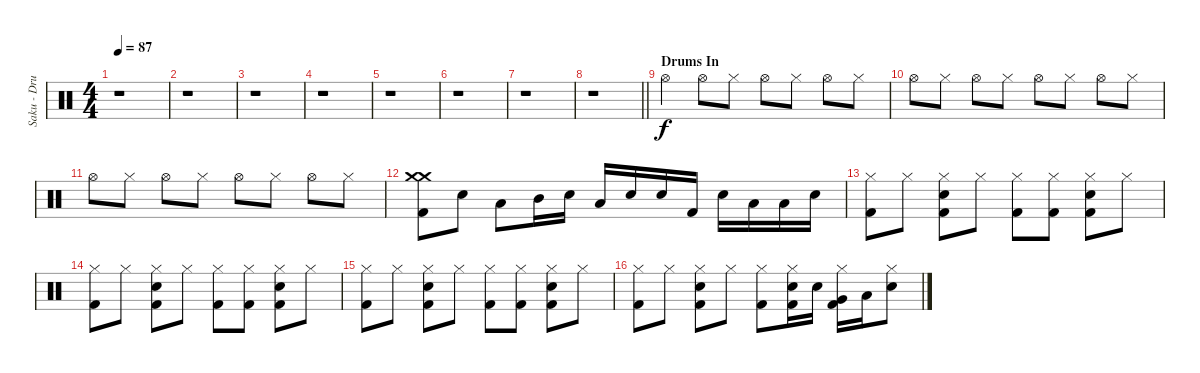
\track ("Saku - Drums" "Saku - Dru") {instrument percussion}
\staff {score}
\articulation defaults
\ts (4 4)
\tempo 87
\clef neutral
\ks c
r.1{dy f} |
r.1 |
r.1 |
r.1 |
r.1 |
r.1 |
r.1 |
\barLineRight lightlight
r.1 |
\section ("" "Drums In")
"Hi-Hat (open)".4 "Hi-Hat (open)".8 "Hi-Hat (closed)".8 "Hi-Hat (open)".8 "Hi-Hat (closed)".8 "Hi-Hat (open)".8 "Hi-Hat (closed)".8 |
"Hi-Hat (open)".8 "Hi-Hat (closed)".8 "Hi-Hat (open)".8 "Hi-Hat (closed)".8 "Hi-Hat (open)".8 "Hi-Hat (closed)".8 "Hi-Hat (open)".8 "Hi-Hat (closed)".8 |
"Hi-Hat (open)".8 "Hi-Hat (closed)".8 "Hi-Hat (open)".8 "Hi-Hat (closed)".8 "Hi-Hat (open)".8 "Hi-Hat (closed)".8 "Hi-Hat (open)".8 "Hi-Hat (closed)".8 |
("Kick (hit) 2" "Crash medium (hit)" "Crash medium (hit)").8 "Snare (hit) 2".8 "Low Tom (hit)".8 "Mid Tom (hit)".16 "Snare (hit) 2".16 "Low Floor Tom (hit)".16 "Snare (hit) 2".16 "Snare (hit) 2".16 "Kick (hit) 2".16 "Snare (hit) 2".16 "Low Tom (hit)".16 "Low Floor Tom (hit)".16 "Snare (hit) 2".16 |
("Kick (hit) 2" "Hi-Hat (closed)").8 "Hi-Hat (closed)".8 ("Kick (hit) 2" "Snare (hit) 2" "Hi-Hat (closed)").8 "Hi-Hat (closed)".8 ("Kick (hit) 2" "Hi-Hat (closed)").8 ("Kick (hit) 2" "Hi-Hat (closed)").8 ("Kick (hit) 2" "Snare (hit) 2" "Hi-Hat (closed)").8 "Hi-Hat (closed)".8 |
("Kick (hit) 2" "Hi-Hat (closed)").8 "Hi-Hat (closed)".8 ("Kick (hit) 2" "Snare (hit) 2" "Hi-Hat (closed)").8 "Hi-Hat (closed)".8 ("Kick (hit) 2" "Hi-Hat (closed)").8 ("Kick (hit) 2" "Hi-Hat (closed)").8 ("Kick (hit) 2" "Snare (hit) 2" "Hi-Hat (closed)").8 "Hi-Hat (closed)".8 |
("Kick (hit) 2" "Hi-Hat (closed)").8 "Hi-Hat (closed)".8 ("Kick (hit) 2" "Snare (hit) 2" "Hi-Hat (closed)").8 "Hi-Hat (closed)".8 ("Kick (hit) 2" "Hi-Hat (closed)").8 ("Kick (hit) 2" "Hi-Hat (closed)").8 ("Kick (hit) 2" "Snare (hit) 2" "Hi-Hat (closed)").8 "Hi-Hat (closed)".8 |
("Kick (hit) 2" "Hi-Hat (closed)").8 "Hi-Hat (closed)".8 ("Kick (hit) 2" "Snare (hit) 2" "Hi-Hat (closed)").8 "Hi-Hat (closed)".8 ("Kick (hit) 2" "Hi-Hat (closed)").8 ("Kick (hit) 2" "Snare (hit) 2" "Hi-Hat (closed)").16 "Snare (hit) 2".16 ("Kick (hit) 2" "Very Low Tom (hit)" "Hi-Hat (closed)").16 "Low Tom (hit)".16 ("Snare (hit) 2" "Hi-Hat (closed)").8
